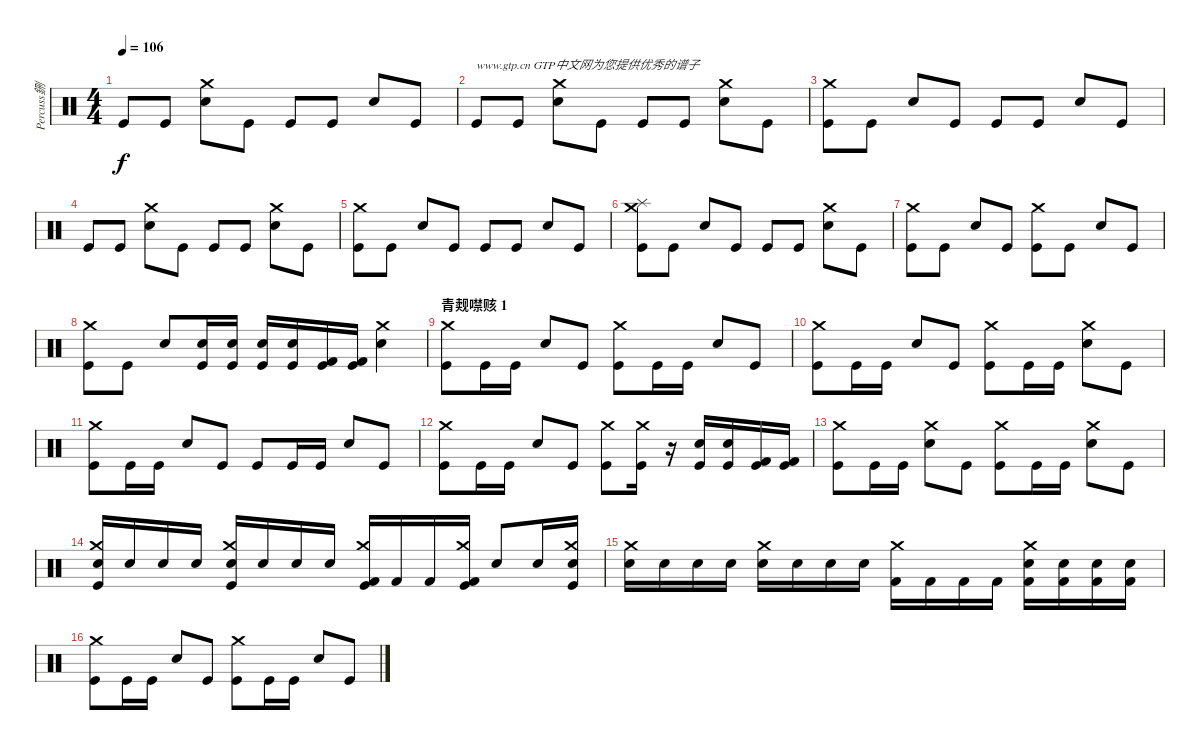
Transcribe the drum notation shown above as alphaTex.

\track ("Percuss鉶" "Percuss鉶") {instrument percussion}
\staff {score}
\articulation defaults
\ts (4 4)
\tempo 106
\clef neutral
\ks c "Kick (hit)".8{dy f} "Kick (hit)".8
("Crash medium (hit)" "Snare (hit) 2").8 "Kick (hit)".8 "Kick (hit)".8 "Kick (hit)".8 "Snare (hit) 2".8 "Kick (hit)".8 |
"Kick (hit)".8{txt "www.gtp.cn GTP中文网为您提供优秀的谱子"} "Kick (hit)".8 ("Crash medium (hit)" "Snare (hit) 2").8 "Kick (hit)".8 "Kick (hit)".8 "Kick (hit)".8 ("Crash medium (hit)" "Snare (hit) 2").8 "Kick (hit)".8 |
("Crash medium (hit)" "Kick (hit)").8 "Kick (hit)".8 "Snare (hit) 2".8 "Kick (hit)".8 "Kick (hit)".8 "Kick (hit)".8 "Snare (hit) 2".8 "Kick (hit)".8 |
"Kick (hit)".8 "Kick (hit)".8 ("Crash medium (hit)" "Snare (hit) 2").8 "Kick (hit)".8 "Kick (hit)".8 "Kick (hit)".8 ("Crash medium (hit)" "Snare (hit) 2").8 "Kick (hit)".8 |
("Crash medium (hit)" "Kick (hit)").8 "Kick (hit)".8 "Snare (hit) 2".8 "Kick (hit)".8 "Kick (hit)".8 "Kick (hit)".8 "Snare (hit) 2".8 "Kick (hit)".8 |
("Crash medium (hit)" "Splash (hit)" "Kick (hit)").8 "Kick (hit)".8 "Snare (hit) 2".8 "Kick (hit)".8 "Kick (hit)".8 "Kick (hit)".8 ("Crash medium (hit)" "Snare (hit) 2").8 "Kick (hit)".8 |
("Crash medium (hit)" "Kick (hit)").8 "Kick (hit)".8 "Snare (hit) 2".8 "Kick (hit)".8 ("Crash medium (hit)" "Kick (hit)").8 "Kick (hit)".8 "Snare (hit) 2".8 "Kick (hit)".8 |
("Crash medium (hit)" "Kick (hit)").8 "Kick (hit)".8 "Snare (hit) 2".8 ("Electric Snare (hit)" "Kick (hit)").16 ("Electric Snare (hit)" "Kick (hit)").16 ("Snare (hit) 2" "Kick (hit)").16 ("Snare (hit) 2" "Kick (hit)").16 ("Kick (hit) 2" "Kick (hit)").16 ("Kick (hit) 2" "Kick (hit)").16 ("Crash medium (hit)" "Snare (hit) 2").4 |
\section ("" "青觌噤赅 1")
("Crash medium (hit)" "Kick (hit)").8 "Kick (hit)".16 "Kick (hit)".16 "Snare (hit) 2".8 "Kick (hit)".8 ("Crash medium (hit)" "Kick (hit)").8 "Kick (hit)".16 "Kick (hit)".16 "Snare (hit) 2".8 "Kick (hit)".8 |
("Crash medium (hit)" "Kick (hit)").8 "Kick (hit)".16 "Kick (hit)".16 "Snare (hit) 2".8 "Kick (hit)".8 ("Crash medium (hit)" "Kick (hit)").8 "Kick (hit)".16 "Kick (hit)".16 ("Crash medium (hit)" "Snare (hit) 2").8 "Kick (hit)".8 |
("Crash medium (hit)" "Kick (hit)").8 "Kick (hit)".16 "Kick (hit)".16 "Snare (hit) 2".8 "Kick (hit)".8 "Kick (hit)".8 "Kick (hit)".16 "Kick (hit)".16 "Snare (hit) 2".8 "Kick (hit)".8 |
("Crash medium (hit)" "Kick (hit)").8 "Kick (hit)".16 "Kick (hit)".16 "Snare (hit) 2".8 "Kick (hit)".8 ("Crash medium (hit)" "Kick (hit)").8 ("Crash medium (hit)" "Kick (hit)").16 r.16 ("Electric Snare (hit)" "Kick (hit)").16 ("Electric Snare (hit)" "Kick (hit)").16 ("Kick (hit) 2" "Kick (hit)").16 ("Kick (hit) 2" "Kick (hit)").16 |
("Crash medium (hit)" "Kick (hit)").8 "Kick (hit)".16 "Kick (hit)".16 ("Crash medium (hit)" "Snare (hit) 2").8 "Kick (hit)".8 ("Crash medium (hit)" "Kick (hit)").8 "Kick (hit)".16 "Kick (hit)".16 ("Crash medium (hit)" "Snare (hit) 2").8 "Kick (hit)".8 |
("Crash medium (hit)" "Electric Snare (hit)" "Kick (hit)").16 "Electric Snare (hit)".16 "Electric Snare (hit)".16 "Electric Snare (hit)".16 ("Crash medium (hit)" "Snare (hit) 2" "Kick (hit)").16 "Snare (hit) 2".16 "Snare (hit) 2".16 "Snare (hit) 2".16 ("Crash medium (hit)" "Kick (hit) 2" "Kick (hit)").16 "Kick (hit) 2".16 "Kick (hit) 2".16 ("Crash medium (hit)" "Kick (hit) 2" "Kick (hit)").16 "Snare (hit) 2".8 "Snare (hit) 2".16 ("Crash medium (hit)" "Snare (hit) 2" "Kick (hit)").16 |
("Crash medium (hit)" "Snare (hit) 2").16 "Snare (hit) 2".16 "Snare (hit) 2".16 "Snare (hit) 2".16 ("Crash medium (hit)" "Snare (hit) 2").16 "Snare (hit) 2".16 "Snare (hit) 2".16 "Snare (hit) 2".16 ("Crash medium (hit)" "Kick (hit) 2").16 "Kick (hit) 2".16 "Kick (hit) 2".16 "Kick (hit) 2".16 ("Crash medium (hit)" "Electric Snare (hit)" "Kick (hit) 2").16 ("Electric Snare (hit)" "Kick (hit) 2").16 ("Electric Snare (hit)" "Kick (hit) 2").16 ("Electric Snare (hit)" "Kick (hit) 2").16 |
("Crash medium (hit)" "Kick (hit)").8 "Kick (hit)".16 "Kick (hit)".16 "Snare (hit) 2".8 "Kick (hit)".8 ("Crash medium (hit)" "Kick (hit)").8 "Kick (hit)".16 "Kick (hit)".16 "Snare (hit) 2".8 "Kick (hit)".8
